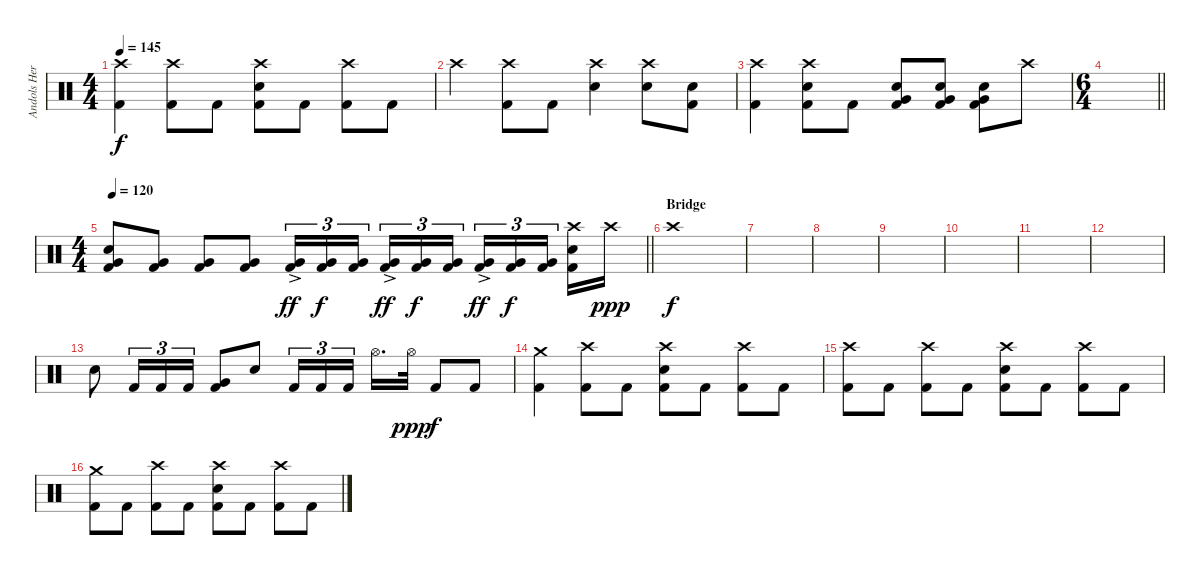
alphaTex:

\track ("Andols Herrick" "Andols Her") {instrument percussion}
\staff {score}
\articulation defaults
\ts (4 4)
\tempo 145
\clef neutral
\ks c
("Crash high (hit)" "Kick (hit) 2").4{dy f} ("Crash high (hit)" "Kick (hit) 2").8 "Kick (hit) 2".8 ("Crash high (hit)" "Electric Snare (hit)" "Kick (hit) 2").8 "Kick (hit) 2".8 ("Crash high (hit)" "Kick (hit) 2").8 "Kick (hit) 2".8 |
"Crash high (hit)".4 ("Crash high (hit)" "Kick (hit) 2").8 "Kick (hit) 2".8 ("Crash high (hit)" "Electric Snare (hit)").4 ("Crash high (hit)" "Electric Snare (hit)").8 ("Electric Snare (hit)" "Kick (hit) 2").8 |
("Crash high (hit)" "Kick (hit) 2").4 ("Crash high (hit)" "Electric Snare (hit)" "Kick (hit) 2").8 "Kick (hit) 2".8 ("Electric Snare (hit)" "Very Low Tom (hit)" "Kick (hit) 2").8 ("Electric Snare (hit)" "Very Low Tom (hit)" "Kick (hit) 2").8 ("Electric Snare (hit)" "Very Low Tom (hit)" "Kick (hit) 2").8 "Crash high (hit)".8 |
\ts (6 4)
\barLineRight lightlight
|
\ts (4 4)
\tempo 120
\barLineRight lightlight
("Electric Snare (hit)" "Very Low Tom (hit)" "Kick (hit) 2").8 ("Very Low Tom (hit)" "Kick (hit) 2").8 ("Very Low Tom (hit)" "Kick (hit) 2").8 ("Very Low Tom (hit)" "Kick (hit) 2").8 ("Very Low Tom (hit)"{ac} "Kick (hit) 2"{ac}).16{tu (3 2) dy ff} ("Very Low Tom (hit)" "Kick (hit) 2").16{tu (3 2) dy f} ("Very Low Tom (hit)" "Kick (hit) 2").16{tu (3 2) beam splitsecondary} ("Very Low Tom (hit)"{ac} "Kick (hit) 2"{ac}).16{tu (3 2) dy ff} ("Very Low Tom (hit)" "Kick (hit) 2").16{tu (3 2) dy f} ("Very Low Tom (hit)" "Kick (hit) 2").16{tu (3 2)} ("Very Low Tom (hit)"{ac} "Kick (hit) 2"{ac}).16{tu (3 2) dy ff} ("Very Low Tom (hit)" "Kick (hit) 2").16{tu (3 2) dy f} ("Very Low Tom (hit)" "Kick (hit) 2").16{tu (3 2) beam splitsecondary} ("Crash high (hit)" "Electric Snare (hit)" "Kick (hit) 2").16 "Crash high (hit)".16{dy ppp} |
\section ("" "Bridge")
"Crash high (hit)".1{dy f} |
|
|
|
|
|
|
"Electric Snare (hit)".8 "Kick (hit) 2".16{tu (3 2)} "Kick (hit) 2".16{tu (3 2)} "Kick (hit) 2".16{tu (3 2)} ("Very Low Tom (hit)" "Kick (hit) 2").8 "Electric Snare (hit)".8 "Kick (hit) 2".16{tu (3 2)} "Kick (hit) 2".16{tu (3 2)} "Kick (hit) 2".16{tu (3 2) beam splitsecondary} "Hi-Hat (open)".16{d} "Hi-Hat (open)".32{dy ppp} "Kick (hit) 2".8{dy f} "Kick (hit) 2".8 |
("Crash medium (hit)" "Kick (hit) 2").4 ("Crash high (hit)" "Kick (hit) 2").8 "Kick (hit) 2".8 ("Crash high (hit)" "Electric Snare (hit)" "Kick (hit) 2").8 "Kick (hit) 2".8 ("Crash high (hit)" "Kick (hit) 2").8 "Kick (hit) 2".8 |
("Crash high (hit)" "Kick (hit) 2").8 "Kick (hit) 2".8 ("Crash high (hit)" "Kick (hit) 2").8 "Kick (hit) 2".8 ("Crash high (hit)" "Electric Snare (hit)" "Kick (hit) 2").8 "Kick (hit) 2".8 ("Crash high (hit)" "Kick (hit) 2").8 "Kick (hit) 2".8 |
("Crash medium (hit)" "Kick (hit) 2").8 "Kick (hit) 2".8 ("Crash high (hit)" "Kick (hit) 2").8 "Kick (hit) 2".8 ("Crash high (hit)" "Electric Snare (hit)" "Kick (hit) 2").8 "Kick (hit) 2".8 ("Crash high (hit)" "Kick (hit) 2").8 "Kick (hit) 2".8
